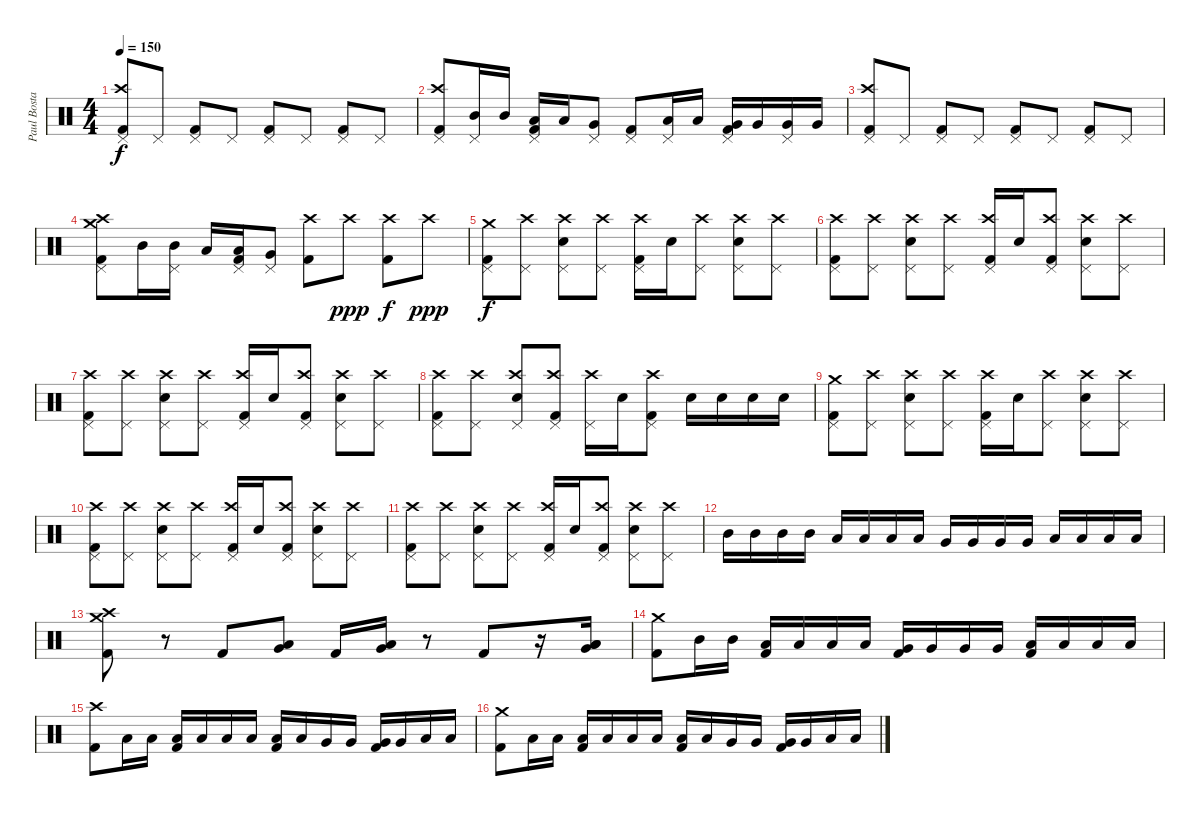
\track ("Paul Bostaph" "Paul Bosta") {instrument percussion}
\staff {score}
\articulation defaults
\ts (4 4)
\tempo 150
\clef neutral
\ks c
("Pedal Hi-Hat (hit)" "Crash high (hit)" "Kick (hit) 2").8{dy f} "Pedal Hi-Hat (hit)".8 ("Pedal Hi-Hat (hit)" "Kick (hit) 2").8 "Pedal Hi-Hat (hit)".8 ("Pedal Hi-Hat (hit)" "Kick (hit) 2").8 "Pedal Hi-Hat (hit)".8 ("Pedal Hi-Hat (hit)" "Kick (hit) 2").8 "Pedal Hi-Hat (hit)".8 |
("Pedal Hi-Hat (hit)" "Kick (hit) 2" "Crash high (hit)").8 ("Pedal Hi-Hat (hit)" "Mid Tom (hit)").16 "Mid Tom (hit)".16 ("Pedal Hi-Hat (hit)" "Kick (hit) 2" "Low Tom (hit)").16 "Low Tom (hit)".16 ("Pedal Hi-Hat (hit)" "Very Low Tom (hit)").8 ("Pedal Hi-Hat (hit)" "Kick (hit) 2").8 ("Pedal Hi-Hat (hit)" "Low Tom (hit)").16 "Low Tom (hit)".16 ("Pedal Hi-Hat (hit)" "Kick (hit) 2" "Very Low Tom (hit)").16 "Very Low Tom (hit)".16 ("Pedal Hi-Hat (hit)" "Very Low Tom (hit)").16 "Very Low Tom (hit)".16 |
("Pedal Hi-Hat (hit)" "Crash high (hit)" "Kick (hit) 2").8 "Pedal Hi-Hat (hit)".8 ("Pedal Hi-Hat (hit)" "Kick (hit) 2").8 "Pedal Hi-Hat (hit)".8 ("Pedal Hi-Hat (hit)" "Kick (hit) 2").8 "Pedal Hi-Hat (hit)".8 ("Pedal Hi-Hat (hit)" "Kick (hit) 2").8 "Pedal Hi-Hat (hit)".8 |
("Pedal Hi-Hat (hit)" "Crash high (hit)" "Kick (hit) 2" "Crash medium (hit)").8 "Mid Tom (hit)".16 ("Pedal Hi-Hat (hit)" "Mid Tom (hit)").16 "Low Tom (hit)".16 ("Pedal Hi-Hat (hit)" "Kick (hit) 2" "Low Tom (hit)").16 ("Pedal Hi-Hat (hit)" "Very Low Tom (hit)").8 ("Crash high (hit)" "Kick (hit) 2").8 "Crash high (hit)".8{dy ppp} ("Crash high (hit)" "Kick (hit) 2").8{dy f} "Crash high (hit)".8{dy ppp} |
("Pedal Hi-Hat (hit)" "Crash medium (hit)" "Kick (hit) 2").8{dy f} ("Pedal Hi-Hat (hit)" "Crash high (hit)").8 ("Pedal Hi-Hat (hit)" "Crash high (hit)" "Electric Snare (hit)").8 ("Pedal Hi-Hat (hit)" "Crash high (hit)").8 ("Pedal Hi-Hat (hit)" "Crash high (hit)" "Kick (hit) 2").16 "Electric Snare (hit)".16 ("Pedal Hi-Hat (hit)" "Crash high (hit)").8 ("Pedal Hi-Hat (hit)" "Crash high (hit)" "Electric Snare (hit)").8 ("Pedal Hi-Hat (hit)" "Crash high (hit)").8 |
("Pedal Hi-Hat (hit)" "Crash high (hit)" "Kick (hit) 2").8 ("Pedal Hi-Hat (hit)" "Crash high (hit)").8 ("Pedal Hi-Hat (hit)" "Crash high (hit)" "Electric Snare (hit)").8 ("Pedal Hi-Hat (hit)" "Crash high (hit)").8 ("Pedal Hi-Hat (hit)" "Crash high (hit)" "Kick (hit) 2").16 "Electric Snare (hit)".16 ("Pedal Hi-Hat (hit)" "Crash high (hit)" "Kick (hit) 2").8 ("Pedal Hi-Hat (hit)" "Crash high (hit)" "Electric Snare (hit)").8 ("Pedal Hi-Hat (hit)" "Crash high (hit)").8 |
("Pedal Hi-Hat (hit)" "Crash high (hit)" "Kick (hit) 2").8 ("Pedal Hi-Hat (hit)" "Crash high (hit)").8 ("Pedal Hi-Hat (hit)" "Crash high (hit)" "Electric Snare (hit)").8 ("Pedal Hi-Hat (hit)" "Crash high (hit)").8 ("Pedal Hi-Hat (hit)" "Crash high (hit)" "Kick (hit) 2").16 "Electric Snare (hit)".16 ("Pedal Hi-Hat (hit)" "Crash high (hit)" "Kick (hit) 2").8 ("Pedal Hi-Hat (hit)" "Crash high (hit)" "Electric Snare (hit)").8 ("Pedal Hi-Hat (hit)" "Crash high (hit)").8 |
("Pedal Hi-Hat (hit)" "Crash high (hit)" "Kick (hit) 2").8 ("Pedal Hi-Hat (hit)" "Crash high (hit)").8 ("Pedal Hi-Hat (hit)" "Crash high (hit)" "Electric Snare (hit)").8 ("Pedal Hi-Hat (hit)" "Crash high (hit)" "Kick (hit) 2").8 ("Pedal Hi-Hat (hit)" "Crash high (hit)").16 "Electric Snare (hit)".16 ("Pedal Hi-Hat (hit)" "Crash high (hit)" "Kick (hit) 2").8 "Electric Snare (hit)".16 "Electric Snare (hit)".16 "Electric Snare (hit)".16 "Electric Snare (hit)".16 |
("Pedal Hi-Hat (hit)" "Crash medium (hit)" "Kick (hit) 2").8 ("Pedal Hi-Hat (hit)" "Crash high (hit)").8 ("Pedal Hi-Hat (hit)" "Crash high (hit)" "Electric Snare (hit)").8 ("Pedal Hi-Hat (hit)" "Crash high (hit)").8 ("Pedal Hi-Hat (hit)" "Crash high (hit)" "Kick (hit) 2").16 "Electric Snare (hit)".16 ("Pedal Hi-Hat (hit)" "Crash high (hit)").8 ("Pedal Hi-Hat (hit)" "Crash high (hit)" "Electric Snare (hit)").8 ("Pedal Hi-Hat (hit)" "Crash high (hit)").8 |
("Pedal Hi-Hat (hit)" "Crash high (hit)" "Kick (hit) 2").8 ("Pedal Hi-Hat (hit)" "Crash high (hit)").8 ("Pedal Hi-Hat (hit)" "Crash high (hit)" "Electric Snare (hit)").8 ("Pedal Hi-Hat (hit)" "Crash high (hit)").8 ("Pedal Hi-Hat (hit)" "Crash high (hit)" "Kick (hit) 2").16 "Electric Snare (hit)".16 ("Pedal Hi-Hat (hit)" "Crash high (hit)" "Kick (hit) 2").8 ("Pedal Hi-Hat (hit)" "Crash high (hit)" "Electric Snare (hit)").8 ("Pedal Hi-Hat (hit)" "Crash high (hit)").8 |
("Pedal Hi-Hat (hit)" "Crash high (hit)" "Kick (hit) 2").8 ("Pedal Hi-Hat (hit)" "Crash high (hit)").8 ("Pedal Hi-Hat (hit)" "Crash high (hit)" "Electric Snare (hit)").8 ("Pedal Hi-Hat (hit)" "Crash high (hit)").8 ("Pedal Hi-Hat (hit)" "Crash high (hit)" "Kick (hit) 2").16 "Electric Snare (hit)".16 ("Pedal Hi-Hat (hit)" "Crash high (hit)" "Kick (hit) 2").8 ("Pedal Hi-Hat (hit)" "Crash high (hit)" "Electric Snare (hit)").8 ("Pedal Hi-Hat (hit)" "Crash high (hit)").8 |
"Mid Tom (hit)".16 "Mid Tom (hit)".16 "Mid Tom (hit)".16 "Mid Tom (hit)".16 "Low Tom (hit)".16 "Low Tom (hit)".16 "Low Tom (hit)".16 "Low Tom (hit)".16 "Very Low Tom (hit)".16 "Very Low Tom (hit)".16 "Very Low Tom (hit)".16 "Very Low Tom (hit)".16 "Low Floor Tom (hit)".16 "Low Floor Tom (hit)".16 "Low Floor Tom (hit)".16 "Low Floor Tom (hit)".16 |
("Crash high (hit)" "Kick (hit) 2" "Crash medium (hit)").8 r.8 "Kick (hit) 2".8 ("Low Tom (hit)" "Very Low Tom (hit)").8 "Kick (hit) 2".16 ("Very Low Tom (hit)" "Low Tom (hit)").16 r.8 "Kick (hit) 2".8 r.16 ("Low Tom (hit)" "Low Floor Tom (hit)" "Very Low Tom (hit)").16 |
("Crash medium (hit)" "Kick (hit) 2").8 "Mid Tom (hit)".16 "Mid Tom (hit)".16 ("Low Tom (hit)" "Kick (hit) 2").16 "Low Tom (hit)".16 "Low Tom (hit)".16 "Low Tom (hit)".16 ("Very Low Tom (hit)" "Kick (hit) 2").16 "Very Low Tom (hit)".16 "Very Low Tom (hit)".16 "Very Low Tom (hit)".16 ("Low Floor Tom (hit)" "Kick (hit) 2").16 "Low Floor Tom (hit)".16 "Low Floor Tom (hit)".16 "Low Floor Tom (hit)".16 |
("Kick (hit) 2" "Crash high (hit)").8 "Low Tom (hit)".16 "Low Tom (hit)".16 ("Low Tom (hit)" "Kick (hit) 2").16 "Low Tom (hit)".16 "Low Tom (hit)".16 "Low Tom (hit)".16 ("Low Tom (hit)" "Kick (hit) 2").16 "Low Tom (hit)".16 "Very Low Tom (hit)".16 "Very Low Tom (hit)".16 ("Very Low Tom (hit)" "Kick (hit) 2").16 "Very Low Tom (hit)".16 "Low Floor Tom (hit)".16 "Low Floor Tom (hit)".16 |
("Kick (hit) 2" "Crash medium (hit)").8 "Low Tom (hit)".16 "Low Tom (hit)".16 ("Low Tom (hit)" "Kick (hit) 2").16 "Low Tom (hit)".16 "Low Tom (hit)".16 "Low Tom (hit)".16 ("Low Tom (hit)" "Kick (hit) 2").16 "Low Tom (hit)".16 "Very Low Tom (hit)".16 "Very Low Tom (hit)".16 ("Very Low Tom (hit)" "Kick (hit) 2").16 "Very Low Tom (hit)".16 "Low Floor Tom (hit)".16 "Low Floor Tom (hit)".16
